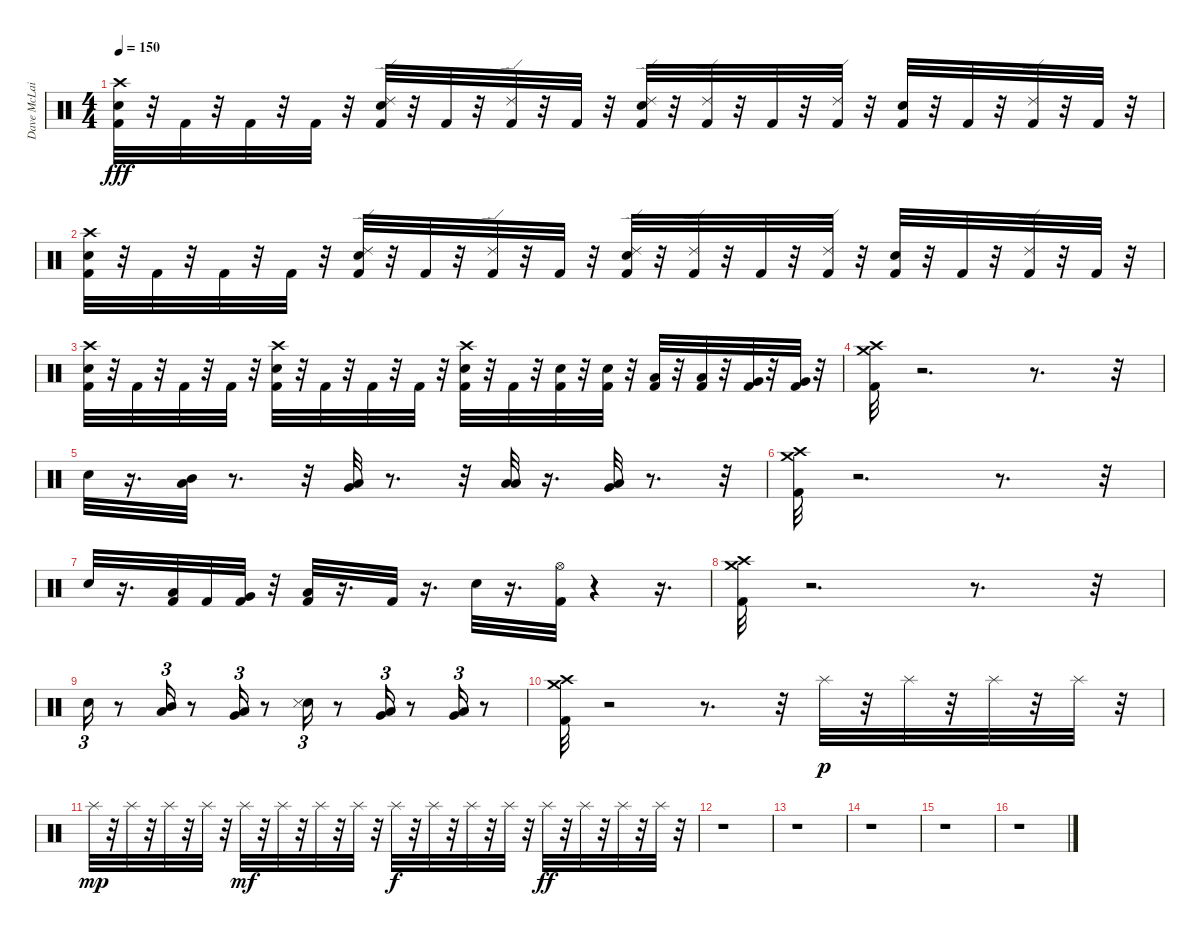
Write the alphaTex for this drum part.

\track ("Dave McLain" "Dave McLai") {instrument percussion}
\staff {score}
\articulation defaults
\ts (4 4)
\tempo 150
\clef neutral
\ks c
("Crash high (hit)" "Snare (hit) 2" "Kick (hit) 2").32{dy fff} r.32 "Kick (hit) 2".32 r.32 "Kick (hit) 2".32 r.32 "Kick (hit) 2".32 r.32 ("Ride (edge) 2" "Snare (hit) 2" "Kick (hit) 2").32 r.32 "Kick (hit) 2".32 r.32 ("Ride (edge) 2" "Kick (hit) 2").32 r.32 "Kick (hit) 2".32 r.32 ("Ride (edge) 2" "Snare (hit) 2" "Kick (hit) 2").32 r.32 ("Ride (edge) 2" "Kick (hit) 2").32 r.32 "Kick (hit) 2".32 r.32 ("Ride (edge) 2" "Kick (hit) 2").32 r.32 ("Snare (hit) 2" "Kick (hit) 2").32 r.32 "Kick (hit) 2".32 r.32 ("Ride (edge) 2" "Kick (hit) 2").32 r.32 "Kick (hit) 2".32 r.32 |
("Crash high (hit)" "Snare (hit) 2" "Kick (hit) 2").32 r.32 "Kick (hit) 2".32 r.32 "Kick (hit) 2".32 r.32 "Kick (hit) 2".32 r.32 ("Ride (edge) 2" "Snare (hit) 2" "Kick (hit) 2").32 r.32 "Kick (hit) 2".32 r.32 ("Ride (edge) 2" "Kick (hit) 2").32 r.32 "Kick (hit) 2".32 r.32 ("Ride (edge) 2" "Snare (hit) 2" "Kick (hit) 2").32 r.32 ("Ride (edge) 2" "Kick (hit) 2").32 r.32 "Kick (hit) 2".32 r.32 ("Ride (edge) 2" "Kick (hit) 2").32 r.32 ("Snare (hit) 2" "Kick (hit) 2").32 r.32 "Kick (hit) 2".32 r.32 ("Ride (edge) 2" "Kick (hit) 2").32 r.32 "Kick (hit) 2".32 r.32 |
("Crash high (hit)" "Snare (hit) 2" "Kick (hit) 2").32 r.32 "Kick (hit) 2".32 r.32 "Kick (hit) 2".32 r.32 "Kick (hit) 2".32 r.32 ("Crash high (hit)" "Snare (hit) 2" "Kick (hit) 2").32 r.32 "Kick (hit) 2".32 r.32 "Kick (hit) 2".32 r.32 "Kick (hit) 2".32 r.32 ("Snare (hit) 2" "Crash high (hit)" "Kick (hit) 2").32 r.32 "Kick (hit) 2".32 r.32 ("Snare (hit) 2" "Kick (hit) 2").32 r.32 ("Snare (hit) 2" "Kick (hit) 2").32 r.32 ("Low Tom (hit)" "Kick (hit) 2").32 r.32 ("Low Tom (hit)" "Kick (hit) 2").32 r.32 ("Very Low Tom (hit)" "Kick (hit) 2").32 r.32 ("Very Low Tom (hit)" "Kick (hit) 2").32 r.32 |
("Crash medium (hit)" "Crash high (hit)" "Kick (hit) 2").32 r.2{d} r.8{d} r.32 |
"Snare (hit) 2".32 r.16{d} ("Mid Tom (hit)" "Low Tom (hit)").32 r.8{d} r.32 ("Very Low Tom (hit)" "Low Tom (hit)").32 r.8{d} r.32 ("Low Tom (hit)" "Low Floor Tom (hit)").32 r.16{d} ("Very Low Tom (hit)" "Low Floor Tom (hit)").32 r.8{d} r.32 |
("Crash medium (hit)" "Crash high (hit)" "Kick (hit) 2").32 r.2{d} r.8{d} r.32 |
"Snare (hit) 2".32 r.16{d} ("Low Tom (hit)" "Kick (hit) 2").32 "Kick (hit) 2".32 ("Very Low Tom (hit)" "Kick (hit) 2").32 r.32 ("Low Floor Tom (hit)" "Kick (hit) 2").32 r.16{d} "Kick (hit) 2".32 r.16{d} "Snare (hit) 2".32 r.16{d} ("Hi-Hat (open)" "Kick (hit) 2").32 r.4 r.16{d} |
("Crash medium (hit)" "Crash high (hit)" "Kick (hit) 2").32 r.2{d} r.8{d} r.32 |
"Snare (hit) 2".16{tu (3 2)} r.8 ("Low Tom (hit)" "Mid Tom (hit)").16{tu (3 2)} r.8 ("Very Low Tom (hit)" "Low Tom (hit)").16{tu (3 2)} r.8 ("Snare (hit) 2" "Snare (side stick) 3").16{tu (3 2)} r.8 ("Very Low Tom (hit)" "Low Tom (hit)").16{tu (3 2)} r.8 ("Very Low Tom (hit)" "Low Floor Tom (hit)").16{tu (3 2)} r.8 |
("Crash medium (hit)" "Crash high (hit)" "Kick (hit) 2").32 r.2 r.8{d} r.32 "Splash (hit)".32{dy p} r.32 "Splash (hit)".32 r.32 "Splash (hit)".32 r.32 "Splash (hit)".32 r.32 |
"Splash (hit)".32{dy mp} r.32 "Splash (hit)".32 r.32 "Splash (hit)".32 r.32 "Splash (hit)".32 r.32 "Splash (hit)".32{dy mf} r.32 "Splash (hit)".32 r.32 "Splash (hit)".32 r.32 "Splash (hit)".32 r.32 "Splash (hit)".32{dy f} r.32 "Splash (hit)".32 r.32 "Splash (hit)".32 r.32 "Splash (hit)".32 r.32 "Splash (hit)".32{dy ff} r.32 "Splash (hit)".32 r.32 "Splash (hit)".32 r.32 "Splash (hit)".32 r.32 |
r.1 |
r.1 |
r.1 |
r.1 |
r.1
